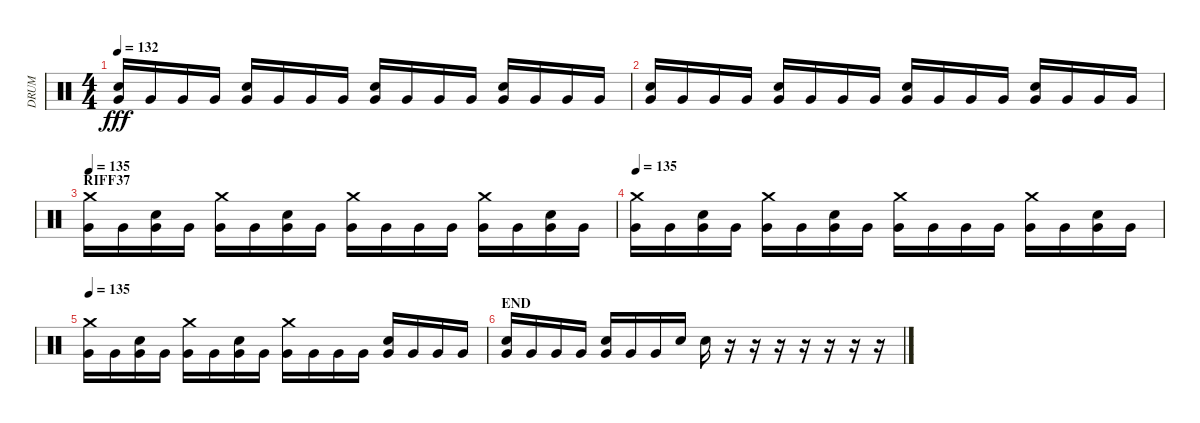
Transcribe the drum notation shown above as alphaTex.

\track ("DRUM" "DRUM") {instrument percussion}
\staff {score}
\articulation defaults
\ts (4 4)
\tempo 132
\clef neutral
\ks c
("Very Low Tom (hit)" "Electric Snare (hit)").16{dy fff} "Very Low Tom (hit)".16 "Very Low Tom (hit)".16 "Very Low Tom (hit)".16 ("Very Low Tom (hit)" "Electric Snare (hit)").16 "Very Low Tom (hit)".16 "Very Low Tom (hit)".16 "Very Low Tom (hit)".16 ("Very Low Tom (hit)" "Electric Snare (hit)").16 "Very Low Tom (hit)".16 "Very Low Tom (hit)".16 "Very Low Tom (hit)".16 ("Very Low Tom (hit)" "Electric Snare (hit)").16 "Very Low Tom (hit)".16 "Very Low Tom (hit)".16 "Very Low Tom (hit)".16 |
("Very Low Tom (hit)" "Electric Snare (hit)").16 "Very Low Tom (hit)".16 "Very Low Tom (hit)".16 "Very Low Tom (hit)".16 ("Very Low Tom (hit)" "Electric Snare (hit)").16 "Very Low Tom (hit)".16 "Very Low Tom (hit)".16 "Very Low Tom (hit)".16 ("Very Low Tom (hit)" "Electric Snare (hit)").16 "Very Low Tom (hit)".16 "Very Low Tom (hit)".16 "Very Low Tom (hit)".16 ("Very Low Tom (hit)" "Electric Snare (hit)").16 "Very Low Tom (hit)".16 "Very Low Tom (hit)".16 "Very Low Tom (hit)".16 |
\section ("" "RIFF37")
\tempo 135
("Very Low Tom (hit)" "Crash medium (hit)").16 "Very Low Tom (hit)".16 ("Very Low Tom (hit)" "Electric Snare (hit)").16 "Very Low Tom (hit)".16 ("Very Low Tom (hit)" "Crash medium (hit)").16 "Very Low Tom (hit)".16 ("Very Low Tom (hit)" "Electric Snare (hit)").16 "Very Low Tom (hit)".16 ("Very Low Tom (hit)" "Crash medium (hit)").16 "Very Low Tom (hit)".16 "Very Low Tom (hit)".16 "Very Low Tom (hit)".16 ("Very Low Tom (hit)" "Crash medium (hit)").16 "Very Low Tom (hit)".16 ("Very Low Tom (hit)" "Electric Snare (hit)").16 "Very Low Tom (hit)".16 |
\tempo 135
("Very Low Tom (hit)" "Crash medium (hit)").16 "Very Low Tom (hit)".16 ("Very Low Tom (hit)" "Electric Snare (hit)").16 "Very Low Tom (hit)".16 ("Very Low Tom (hit)" "Crash medium (hit)").16 "Very Low Tom (hit)".16 ("Very Low Tom (hit)" "Electric Snare (hit)").16 "Very Low Tom (hit)".16 ("Very Low Tom (hit)" "Crash medium (hit)").16 "Very Low Tom (hit)".16 "Very Low Tom (hit)".16 "Very Low Tom (hit)".16 ("Very Low Tom (hit)" "Crash medium (hit)").16 "Very Low Tom (hit)".16 ("Very Low Tom (hit)" "Electric Snare (hit)").16 "Very Low Tom (hit)".16 |
\tempo 135
("Very Low Tom (hit)" "Crash medium (hit)").16 "Very Low Tom (hit)".16 ("Very Low Tom (hit)" "Electric Snare (hit)").16 "Very Low Tom (hit)".16 ("Very Low Tom (hit)" "Crash medium (hit)").16 "Very Low Tom (hit)".16 ("Very Low Tom (hit)" "Electric Snare (hit)").16 "Very Low Tom (hit)".16 ("Very Low Tom (hit)" "Crash medium (hit)").16 "Very Low Tom (hit)".16 "Very Low Tom (hit)".16 "Very Low Tom (hit)".16 ("Very Low Tom (hit)" "Electric Snare (hit)").16 "Very Low Tom (hit)".16 "Very Low Tom (hit)".16 "Very Low Tom (hit)".16 |
\section ("" "END")
("Very Low Tom (hit)" "Electric Snare (hit)").16 "Very Low Tom (hit)".16 "Very Low Tom (hit)".16 "Very Low Tom (hit)".16 ("Very Low Tom (hit)" "Electric Snare (hit)").16 "Very Low Tom (hit)".16 "Very Low Tom (hit)".16 "Electric Snare (hit)".16 "Electric Snare (hit)".16 r.16 r.16 r.16 r.16 r.16 r.16 r.16
